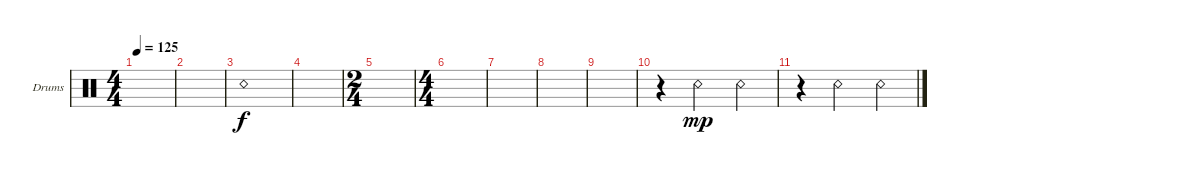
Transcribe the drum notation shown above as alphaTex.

\defaultSystemsLayout 4
\bracketExtendMode groupsimilarinstruments
\firstSystemTrackNameOrientation horizontal
\otherSystemsTrackNameOrientation horizontal
\track ("Drumkit" "Drums") {instrument percussion}
\staff {score}
\articulation defaults
\ts (4 4)
\tempo 125
\clef neutral
\scale
0.333333
\ks c
|
\scale
0.333333 |
\scale
0.262911 "Snare (rim shot)".1 |
\scale
0.262911 |
\ts (2 4)
\scale
0.474178 |
\ts (4 4)
\scale
0.474178 |
\scale
0.262911 |
\scale
0.262911 |
\scale
0.333333 |
\scale
0.333333 r.4 "Snare (rim shot)".2{dy mp} "Snare (rim shot)".4 |
\scale
0.333333 r.4 "Snare (rim shot)".2 "Snare (rim shot)".4 |
\scale
0.333333 |
\scale
0.333333 |
\scale
0.333333 |
\scale
0.333333 |
\scale
0.333333
